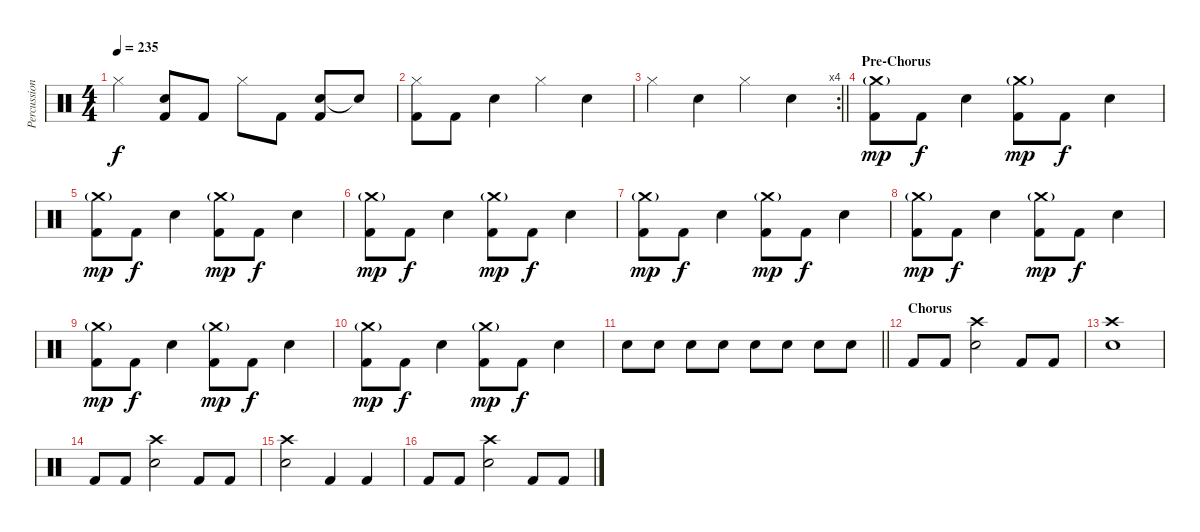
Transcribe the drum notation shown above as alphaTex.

\track ("Percussion" "Percussion") {instrument percussion}
\staff {score}
\articulation defaults
\ts (4 4)
\tempo 235
\clef neutral
\ks c "Hi-Hat (closed)".4{dy f}
("Electric Snare (hit)" "Kick (hit) 2").8 "Kick (hit) 2".8 "Hi-Hat (closed)".8 "Kick (hit) 2".8 ("Electric Snare (hit)" "Kick (hit) 2").8 "Electric Snare (hit)"{t}.8 |
("Hi-Hat (closed)" "Kick (hit) 2").8 "Kick (hit) 2".8 "Electric Snare (hit)".4 "Hi-Hat (closed)".4 "Electric Snare (hit)".4 |
\rc 4
\barLineRight lightlight "Hi-Hat (closed)".4 "Electric Snare (hit)".4 "Hi-Hat (closed)".4 "Electric Snare (hit)".4
|
\section ("" "Pre-Chorus")
("Crash medium (hit)"{g} "Kick (hit) 2").8{dy mp} "Kick (hit) 2".8{dy f} "Electric Snare (hit)".4 ("Crash medium (hit)"{g} "Kick (hit) 2").8{dy mp} "Kick (hit) 2".8{dy f} "Electric Snare (hit)".4 |
("Crash medium (hit)"{g} "Kick (hit) 2").8{dy mp} "Kick (hit) 2".8{dy f} "Electric Snare (hit)".4 ("Crash medium (hit)"{g} "Kick (hit) 2").8{dy mp} "Kick (hit) 2".8{dy f} "Electric Snare (hit)".4 |
("Crash medium (hit)"{g} "Kick (hit) 2").8{dy mp} "Kick (hit) 2".8{dy f} "Electric Snare (hit)".4 ("Crash medium (hit)"{g} "Kick (hit) 2").8{dy mp} "Kick (hit) 2".8{dy f} "Electric Snare (hit)".4 |
("Crash medium (hit)"{g} "Kick (hit) 2").8{dy mp} "Kick (hit) 2".8{dy f} "Electric Snare (hit)".4 ("Crash medium (hit)"{g} "Kick (hit) 2").8{dy mp} "Kick (hit) 2".8{dy f} "Electric Snare (hit)".4 |
("Crash medium (hit)"{g} "Kick (hit) 2").8{dy mp} "Kick (hit) 2".8{dy f} "Electric Snare (hit)".4 ("Crash medium (hit)"{g} "Kick (hit) 2").8{dy mp} "Kick (hit) 2".8{dy f} "Electric Snare (hit)".4 |
("Crash medium (hit)"{g} "Kick (hit) 2").8{dy mp} "Kick (hit) 2".8{dy f} "Electric Snare (hit)".4 ("Crash medium (hit)"{g} "Kick (hit) 2").8{dy mp} "Kick (hit) 2".8{dy f} "Electric Snare (hit)".4 |
("Crash medium (hit)"{g} "Kick (hit) 2").8{dy mp} "Kick (hit) 2".8{dy f} "Electric Snare (hit)".4 ("Crash medium (hit)"{g} "Kick (hit) 2").8{dy mp} "Kick (hit) 2".8{dy f} "Electric Snare (hit)".4 |
\barLineRight lightlight "Electric Snare (hit)".8 "Electric Snare (hit)".8 "Electric Snare (hit)".8 "Electric Snare (hit)".8 "Electric Snare (hit)".8 "Electric Snare (hit)".8 "Electric Snare (hit)".8 "Electric Snare (hit)".8
|
\section ("" "Chorus")
"Kick (hit) 2".8 "Kick (hit) 2".8 ("Electric Snare (hit)" "Crash high (hit)").2 "Kick (hit) 2".8 "Kick (hit) 2".8 |
("Electric Snare (hit)" "Crash high (hit)").1 |
"Kick (hit) 2".8 "Kick (hit) 2".8 ("Electric Snare (hit)" "Crash high (hit)").2 "Kick (hit) 2".8 "Kick (hit) 2".8 |
("Electric Snare (hit)" "Crash high (hit)").2 "Kick (hit) 2".4 "Kick (hit) 2".4 |
"Kick (hit) 2".8 "Kick (hit) 2".8 ("Crash high (hit)" "Electric Snare (hit)").2 "Kick (hit) 2".8 "Kick (hit) 2".8
